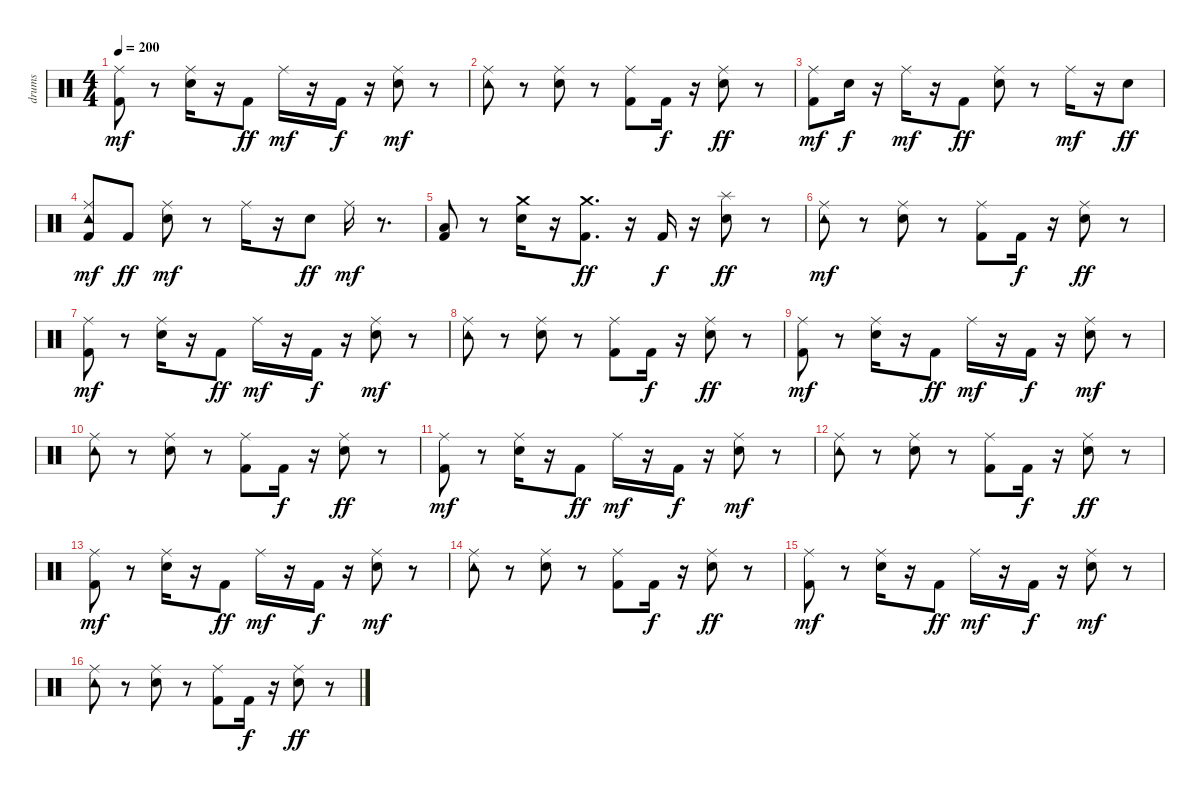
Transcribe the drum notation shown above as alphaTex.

\track ("drums" "drums") {instrument percussion}
\staff {score}
\articulation defaults
\ts (4 4)
\tempo 200
\clef neutral
\ks c
("Kick (hit) 2" "Ride (middle)").8{dy mf} r.8 ("Snare (hit) 2" "Ride (middle)").16 r.16 "Kick (hit) 2".8{dy ff} "Ride (middle)".16{dy mf} r.16 "Kick (hit) 2".16{dy f} r.16 ("Snare (hit) 2" "Ride (middle)").8{dy mf} r.8 |
("Tambourine (hit)" "Ride (middle)").8 r.8 ("Snare (hit) 2" "Ride (middle)").8 r.8 ("Kick (hit) 2" "Ride (middle)").8 "Kick (hit) 2".16{dy f} r.16 ("Snare (hit) 2" "Ride (middle)").8{dy ff} r.8 |
("Kick (hit) 2" "Ride (middle)").8{dy mf} "Snare (hit) 2".16{dy f} r.16 "Ride (middle)".16{dy mf} r.16 "Kick (hit) 2".8{dy ff} ("Ride (middle)" "Snare (hit) 2").8 r.8 "Ride (middle)".16{dy mf} r.16 "Snare (hit) 2".8{dy ff} |
("Kick (hit) 2" "Tambourine (hit)" "Ride (middle)").8{dy mf} "Kick (hit) 2".8{dy ff} ("Snare (hit) 2" "Ride (middle)").8{dy mf} r.8 "Ride (middle)".16 r.16 "Snare (hit) 2".8{dy ff} "Ride (middle)".16{dy mf} r.8{d} |
("Low Floor Tom (hit)" "Kick (hit) 2").8 r.8 ("Snare (hit) 2" "Crash medium (hit)").16 r.16 ("Kick (hit) 2" "Crash medium (hit)").8{d dy ff} r.16 "Kick (hit) 2".16{dy f} r.16 ("Splash (hit)" "Snare (hit) 2").8{dy ff} r.8 |
("Tambourine (hit)" "Ride (middle)").8{dy mf} r.8 ("Snare (hit) 2" "Ride (middle)").8 r.8 ("Kick (hit) 2" "Ride (middle)").8 "Kick (hit) 2".16{dy f} r.16 ("Snare (hit) 2" "Ride (middle)").8{dy ff} r.8 |
("Kick (hit) 2" "Ride (middle)").8{dy mf} r.8 ("Snare (hit) 2" "Ride (middle)").16 r.16 "Kick (hit) 2".8{dy ff} "Ride (middle)".16{dy mf} r.16 "Kick (hit) 2".16{dy f} r.16 ("Snare (hit) 2" "Ride (middle)").8{dy mf} r.8 |
("Tambourine (hit)" "Ride (middle)").8 r.8 ("Snare (hit) 2" "Ride (middle)").8 r.8 ("Kick (hit) 2" "Ride (middle)").8 "Kick (hit) 2".16{dy f} r.16 ("Snare (hit) 2" "Ride (middle)").8{dy ff} r.8 |
("Kick (hit) 2" "Ride (middle)").8{dy mf} r.8 ("Snare (hit) 2" "Ride (middle)").16 r.16 "Kick (hit) 2".8{dy ff} "Ride (middle)".16{dy mf} r.16 "Kick (hit) 2".16{dy f} r.16 ("Snare (hit) 2" "Ride (middle)").8{dy mf} r.8 |
("Tambourine (hit)" "Ride (middle)").8 r.8 ("Snare (hit) 2" "Ride (middle)").8 r.8 ("Kick (hit) 2" "Ride (middle)").8 "Kick (hit) 2".16{dy f} r.16 ("Snare (hit) 2" "Ride (middle)").8{dy ff} r.8 |
("Kick (hit) 2" "Ride (middle)").8{dy mf} r.8 ("Snare (hit) 2" "Ride (middle)").16 r.16 "Kick (hit) 2".8{dy ff} "Ride (middle)".16{dy mf} r.16 "Kick (hit) 2".16{dy f} r.16 ("Snare (hit) 2" "Ride (middle)").8{dy mf} r.8 |
("Tambourine (hit)" "Ride (middle)").8 r.8 ("Snare (hit) 2" "Ride (middle)").8 r.8 ("Kick (hit) 2" "Ride (middle)").8 "Kick (hit) 2".16{dy f} r.16 ("Snare (hit) 2" "Ride (middle)").8{dy ff} r.8 |
("Kick (hit) 2" "Ride (middle)").8{dy mf} r.8 ("Snare (hit) 2" "Ride (middle)").16 r.16 "Kick (hit) 2".8{dy ff} "Ride (middle)".16{dy mf} r.16 "Kick (hit) 2".16{dy f} r.16 ("Snare (hit) 2" "Ride (middle)").8{dy mf} r.8 |
("Tambourine (hit)" "Ride (middle)").8 r.8 ("Snare (hit) 2" "Ride (middle)").8 r.8 ("Kick (hit) 2" "Ride (middle)").8 "Kick (hit) 2".16{dy f} r.16 ("Snare (hit) 2" "Ride (middle)").8{dy ff} r.8 |
("Kick (hit) 2" "Ride (middle)").8{dy mf} r.8 ("Snare (hit) 2" "Ride (middle)").16 r.16 "Kick (hit) 2".8{dy ff} "Ride (middle)".16{dy mf} r.16 "Kick (hit) 2".16{dy f} r.16 ("Snare (hit) 2" "Ride (middle)").8{dy mf} r.8 |
("Tambourine (hit)" "Ride (middle)").8 r.8 ("Snare (hit) 2" "Ride (middle)").8 r.8 ("Kick (hit) 2" "Ride (middle)").8 "Kick (hit) 2".16{dy f} r.16 ("Snare (hit) 2" "Ride (middle)").8{dy ff} r.8
